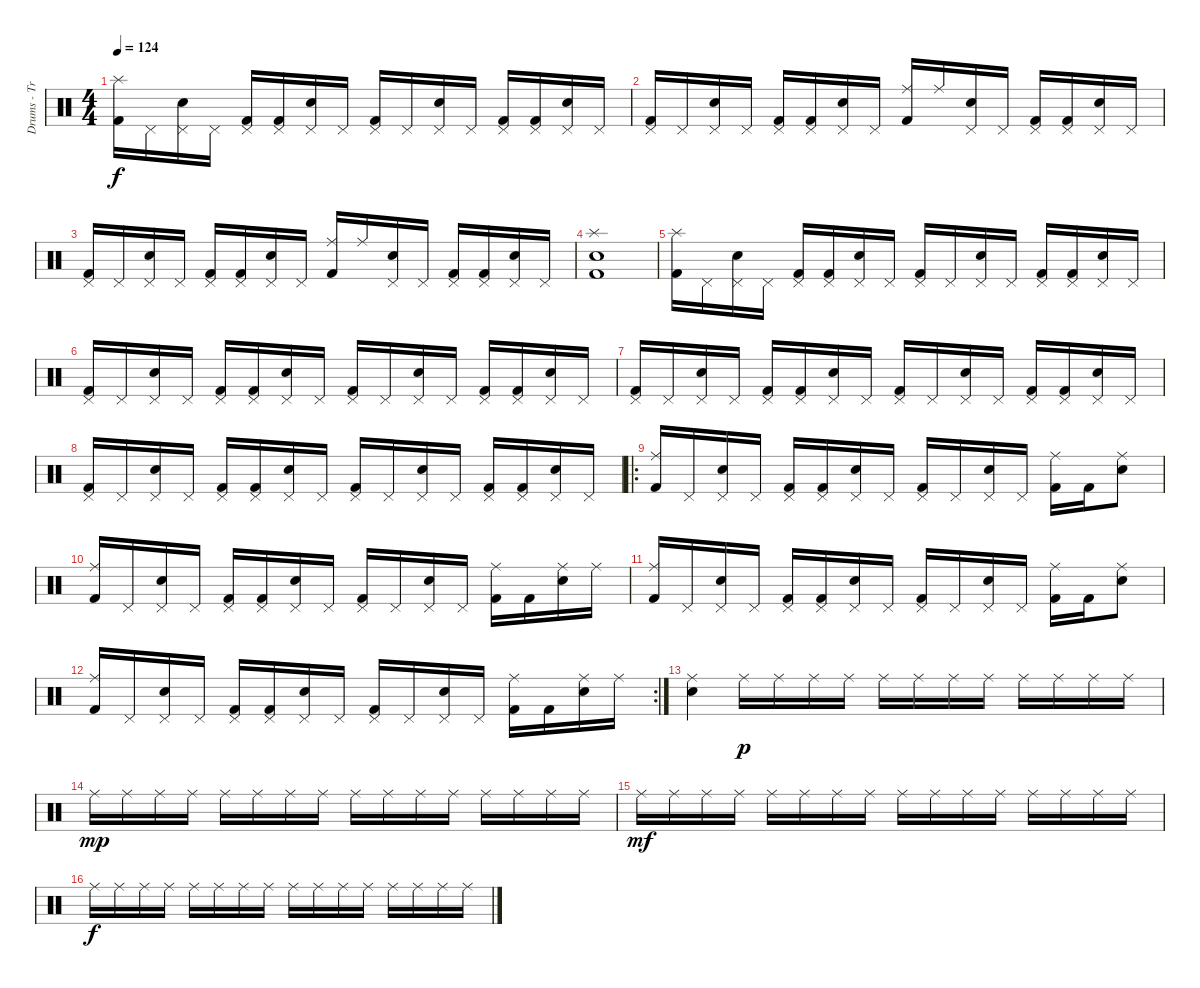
\track ("Drums - Travis Barker" "Drums - Tr") {instrument percussion}
\staff {score}
\articulation defaults
\ts (4 4)
\tempo 124
\clef neutral
\ks c
("Splash (hit)" "Kick (hit) 2").16{dy f} "Pedal Hi-Hat (hit)".16 ("Pedal Hi-Hat (hit)" "Electric Snare (hit)").16 "Pedal Hi-Hat (hit)".16 ("Pedal Hi-Hat (hit)" "Kick (hit) 2").16 ("Pedal Hi-Hat (hit)" "Kick (hit) 2").16 ("Pedal Hi-Hat (hit)" "Electric Snare (hit)").16 "Pedal Hi-Hat (hit)".16 ("Pedal Hi-Hat (hit)" "Kick (hit) 2").16 "Pedal Hi-Hat (hit)".16 ("Pedal Hi-Hat (hit)" "Electric Snare (hit)").16 "Pedal Hi-Hat (hit)".16 ("Pedal Hi-Hat (hit)" "Kick (hit) 2").16 ("Pedal Hi-Hat (hit)" "Kick (hit) 2").16 ("Pedal Hi-Hat (hit)" "Electric Snare (hit)").16 "Pedal Hi-Hat (hit)".16 |
("Pedal Hi-Hat (hit)" "Kick (hit) 2").16 "Pedal Hi-Hat (hit)".16 ("Pedal Hi-Hat (hit)" "Electric Snare (hit)").16 "Pedal Hi-Hat (hit)".16 ("Pedal Hi-Hat (hit)" "Kick (hit) 2").16 ("Pedal Hi-Hat (hit)" "Kick (hit) 2").16 ("Pedal Hi-Hat (hit)" "Electric Snare (hit)").16 "Pedal Hi-Hat (hit)".16 ("Ride (middle)" "Kick (hit) 2").16 "Ride (middle)".16 ("Pedal Hi-Hat (hit)" "Electric Snare (hit)").16 "Pedal Hi-Hat (hit)".16 ("Pedal Hi-Hat (hit)" "Kick (hit) 2").16 ("Pedal Hi-Hat (hit)" "Kick (hit) 2").16 ("Pedal Hi-Hat (hit)" "Electric Snare (hit)").16 "Pedal Hi-Hat (hit)".16 |
("Pedal Hi-Hat (hit)" "Kick (hit) 2").16 "Pedal Hi-Hat (hit)".16 ("Pedal Hi-Hat (hit)" "Electric Snare (hit)").16 "Pedal Hi-Hat (hit)".16 ("Pedal Hi-Hat (hit)" "Kick (hit) 2").16 ("Pedal Hi-Hat (hit)" "Kick (hit) 2").16 ("Pedal Hi-Hat (hit)" "Electric Snare (hit)").16 "Pedal Hi-Hat (hit)".16 ("Ride (middle)" "Kick (hit) 2").16 "Ride (middle)".16 ("Pedal Hi-Hat (hit)" "Electric Snare (hit)").16 "Pedal Hi-Hat (hit)".16 ("Pedal Hi-Hat (hit)" "Kick (hit) 2").16 ("Pedal Hi-Hat (hit)" "Kick (hit) 2").16 ("Pedal Hi-Hat (hit)" "Electric Snare (hit)").16 "Pedal Hi-Hat (hit)".16 |
("Splash (hit)" "Electric Snare (hit)" "Kick (hit) 2").1 |
("Splash (hit)" "Kick (hit) 2").16 "Pedal Hi-Hat (hit)".16 ("Pedal Hi-Hat (hit)" "Electric Snare (hit)").16 "Pedal Hi-Hat (hit)".16 ("Pedal Hi-Hat (hit)" "Kick (hit) 2").16 ("Pedal Hi-Hat (hit)" "Kick (hit) 2").16 ("Pedal Hi-Hat (hit)" "Electric Snare (hit)").16 "Pedal Hi-Hat (hit)".16 ("Pedal Hi-Hat (hit)" "Kick (hit) 2").16 "Pedal Hi-Hat (hit)".16 ("Pedal Hi-Hat (hit)" "Electric Snare (hit)").16 "Pedal Hi-Hat (hit)".16 ("Pedal Hi-Hat (hit)" "Kick (hit) 2").16 ("Pedal Hi-Hat (hit)" "Kick (hit) 2").16 ("Pedal Hi-Hat (hit)" "Electric Snare (hit)").16 "Pedal Hi-Hat (hit)".16 |
("Pedal Hi-Hat (hit)" "Kick (hit) 2").16 "Pedal Hi-Hat (hit)".16 ("Pedal Hi-Hat (hit)" "Electric Snare (hit)").16 "Pedal Hi-Hat (hit)".16 ("Pedal Hi-Hat (hit)" "Kick (hit) 2").16 ("Pedal Hi-Hat (hit)" "Kick (hit) 2").16 ("Pedal Hi-Hat (hit)" "Electric Snare (hit)").16 "Pedal Hi-Hat (hit)".16 ("Pedal Hi-Hat (hit)" "Kick (hit) 2").16 "Pedal Hi-Hat (hit)".16 ("Pedal Hi-Hat (hit)" "Electric Snare (hit)").16 "Pedal Hi-Hat (hit)".16 ("Pedal Hi-Hat (hit)" "Kick (hit) 2").16 ("Pedal Hi-Hat (hit)" "Kick (hit) 2").16 ("Pedal Hi-Hat (hit)" "Electric Snare (hit)").16 "Pedal Hi-Hat (hit)".16 |
("Pedal Hi-Hat (hit)" "Kick (hit) 2").16 "Pedal Hi-Hat (hit)".16 ("Pedal Hi-Hat (hit)" "Electric Snare (hit)").16 "Pedal Hi-Hat (hit)".16 ("Pedal Hi-Hat (hit)" "Kick (hit) 2").16 ("Pedal Hi-Hat (hit)" "Kick (hit) 2").16 ("Pedal Hi-Hat (hit)" "Electric Snare (hit)").16 "Pedal Hi-Hat (hit)".16 ("Pedal Hi-Hat (hit)" "Kick (hit) 2").16 "Pedal Hi-Hat (hit)".16 ("Pedal Hi-Hat (hit)" "Electric Snare (hit)").16 "Pedal Hi-Hat (hit)".16 ("Pedal Hi-Hat (hit)" "Kick (hit) 2").16 ("Pedal Hi-Hat (hit)" "Kick (hit) 2").16 ("Pedal Hi-Hat (hit)" "Electric Snare (hit)").16 "Pedal Hi-Hat (hit)".16 |
("Pedal Hi-Hat (hit)" "Kick (hit) 2").16 "Pedal Hi-Hat (hit)".16 ("Pedal Hi-Hat (hit)" "Electric Snare (hit)").16 "Pedal Hi-Hat (hit)".16 ("Pedal Hi-Hat (hit)" "Kick (hit) 2").16 ("Pedal Hi-Hat (hit)" "Kick (hit) 2").16 ("Pedal Hi-Hat (hit)" "Electric Snare (hit)").16 "Pedal Hi-Hat (hit)".16 ("Pedal Hi-Hat (hit)" "Kick (hit) 2").16 "Pedal Hi-Hat (hit)".16 ("Pedal Hi-Hat (hit)" "Electric Snare (hit)").16 "Pedal Hi-Hat (hit)".16 ("Pedal Hi-Hat (hit)" "Kick (hit) 2").16 ("Pedal Hi-Hat (hit)" "Kick (hit) 2").16 ("Pedal Hi-Hat (hit)" "Electric Snare (hit)").16 "Pedal Hi-Hat (hit)".16 |
\ro
("Ride (middle)" "Kick (hit) 2").16 "Pedal Hi-Hat (hit)".16 ("Pedal Hi-Hat (hit)" "Electric Snare (hit)").16 "Pedal Hi-Hat (hit)".16 ("Pedal Hi-Hat (hit)" "Kick (hit) 2").16 ("Pedal Hi-Hat (hit)" "Kick (hit) 2").16 ("Pedal Hi-Hat (hit)" "Electric Snare (hit)").16 "Pedal Hi-Hat (hit)".16 ("Pedal Hi-Hat (hit)" "Kick (hit) 2").16 "Pedal Hi-Hat (hit)".16 ("Pedal Hi-Hat (hit)" "Electric Snare (hit)").16 "Pedal Hi-Hat (hit)".16 ("Ride (middle)" "Kick (hit) 2").16 "Kick (hit) 2".16 ("Ride (middle)" "Electric Snare (hit)").8 |
("Ride (middle)" "Kick (hit) 2").16 "Pedal Hi-Hat (hit)".16 ("Pedal Hi-Hat (hit)" "Electric Snare (hit)").16 "Pedal Hi-Hat (hit)".16 ("Pedal Hi-Hat (hit)" "Kick (hit) 2").16 ("Pedal Hi-Hat (hit)" "Kick (hit) 2").16 ("Pedal Hi-Hat (hit)" "Electric Snare (hit)").16 "Pedal Hi-Hat (hit)".16 ("Pedal Hi-Hat (hit)" "Kick (hit) 2").16 "Pedal Hi-Hat (hit)".16 ("Pedal Hi-Hat (hit)" "Electric Snare (hit)").16 "Pedal Hi-Hat (hit)".16 ("Ride (middle)" "Kick (hit) 2").16 "Kick (hit) 2".16 ("Ride (middle)" "Electric Snare (hit)").16 "Ride (middle)".16 |
("Ride (middle)" "Kick (hit) 2").16 "Pedal Hi-Hat (hit)".16 ("Pedal Hi-Hat (hit)" "Electric Snare (hit)").16 "Pedal Hi-Hat (hit)".16 ("Pedal Hi-Hat (hit)" "Kick (hit) 2").16 ("Pedal Hi-Hat (hit)" "Kick (hit) 2").16 ("Pedal Hi-Hat (hit)" "Electric Snare (hit)").16 "Pedal Hi-Hat (hit)".16 ("Pedal Hi-Hat (hit)" "Kick (hit) 2").16 "Pedal Hi-Hat (hit)".16 ("Pedal Hi-Hat (hit)" "Electric Snare (hit)").16 "Pedal Hi-Hat (hit)".16 ("Ride (middle)" "Kick (hit) 2").16 "Kick (hit) 2".16 ("Ride (middle)" "Electric Snare (hit)").8 |
\rc 2
("Ride (middle)" "Kick (hit) 2").16 "Pedal Hi-Hat (hit)".16 ("Pedal Hi-Hat (hit)" "Electric Snare (hit)").16 "Pedal Hi-Hat (hit)".16 ("Pedal Hi-Hat (hit)" "Kick (hit) 2").16 ("Pedal Hi-Hat (hit)" "Kick (hit) 2").16 ("Pedal Hi-Hat (hit)" "Electric Snare (hit)").16 "Pedal Hi-Hat (hit)".16 ("Pedal Hi-Hat (hit)" "Kick (hit) 2").16 "Pedal Hi-Hat (hit)".16 ("Pedal Hi-Hat (hit)" "Electric Snare (hit)").16 "Pedal Hi-Hat (hit)".16 ("Ride (middle)" "Kick (hit) 2").16 "Kick (hit) 2".16 ("Ride (middle)" "Electric Snare (hit)").16 "Ride (middle)".16 |
("Ride (middle)" "Electric Snare (hit)").4 "Ride (middle)".16{dy p} "Ride (middle)".16 "Ride (middle)".16 "Ride (middle)".16 "Ride (middle)".16 "Ride (middle)".16 "Ride (middle)".16 "Ride (middle)".16 "Ride (middle)".16 "Ride (middle)".16 "Ride (middle)".16 "Ride (middle)".16 |
"Ride (middle)".16{dy mp} "Ride (middle)".16 "Ride (middle)".16 "Ride (middle)".16 "Ride (middle)".16 "Ride (middle)".16 "Ride (middle)".16 "Ride (middle)".16 "Ride (middle)".16 "Ride (middle)".16 "Ride (middle)".16 "Ride (middle)".16 "Ride (middle)".16 "Ride (middle)".16 "Ride (middle)".16 "Ride (middle)".16 |
"Ride (middle)".16{dy mf} "Ride (middle)".16 "Ride (middle)".16 "Ride (middle)".16 "Ride (middle)".16 "Ride (middle)".16 "Ride (middle)".16 "Ride (middle)".16 "Ride (middle)".16 "Ride (middle)".16 "Ride (middle)".16 "Ride (middle)".16 "Ride (middle)".16 "Ride (middle)".16 "Ride (middle)".16 "Ride (middle)".16 |
"Ride (middle)".16{dy f} "Ride (middle)".16 "Ride (middle)".16 "Ride (middle)".16 "Ride (middle)".16 "Ride (middle)".16 "Ride (middle)".16 "Ride (middle)".16 "Ride (middle)".16 "Ride (middle)".16 "Ride (middle)".16 "Ride (middle)".16 "Ride (middle)".16 "Ride (middle)".16 "Ride (middle)".16 "Ride (middle)".16
